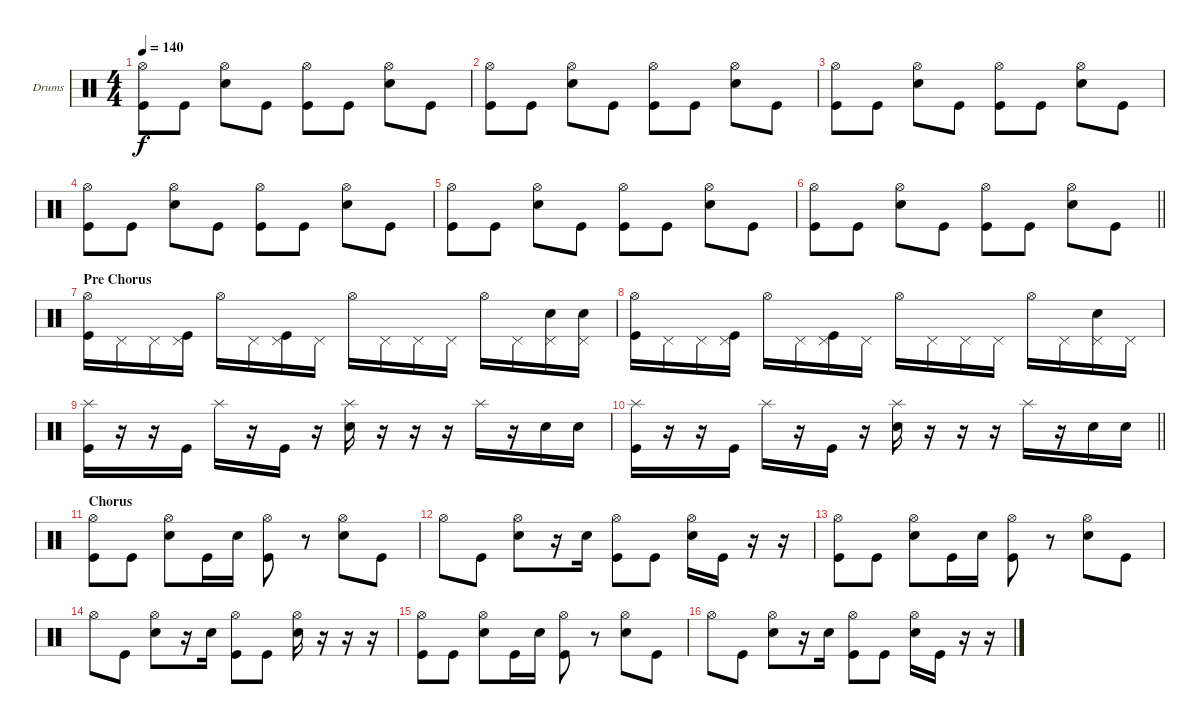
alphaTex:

\bracketExtendMode groupsimilarinstruments
\firstSystemTrackNameOrientation horizontal
\otherSystemsTrackNameOrientation horizontal
\track ("Dave McClain" "Drums") {instrument percussion}
\staff {score}
\articulation defaults
\ts (4 4)
\tempo 140
\clef neutral
\ks c
("Hi-Hat (open)" "Kick (hit)").8{dy f} "Kick (hit)".8 ("Hi-Hat (open)" "Snare (hit) 2").8 "Kick (hit)".8 ("Hi-Hat (open)" "Kick (hit)").8 "Kick (hit)".8 ("Hi-Hat (open)" "Snare (hit) 2").8 "Kick (hit)".8 |
("Hi-Hat (open)" "Kick (hit)").8 "Kick (hit)".8 ("Hi-Hat (open)" "Snare (hit) 2").8 "Kick (hit)".8 ("Hi-Hat (open)" "Kick (hit)").8 "Kick (hit)".8 ("Hi-Hat (open)" "Snare (hit) 2").8 "Kick (hit)".8 |
("Hi-Hat (open)" "Kick (hit)").8 "Kick (hit)".8 ("Hi-Hat (open)" "Snare (hit) 2").8 "Kick (hit)".8 ("Hi-Hat (open)" "Kick (hit)").8 "Kick (hit)".8 ("Hi-Hat (open)" "Snare (hit) 2").8 "Kick (hit)".8 |
("Hi-Hat (open)" "Kick (hit)").8 "Kick (hit)".8 ("Hi-Hat (open)" "Snare (hit) 2").8 "Kick (hit)".8 ("Hi-Hat (open)" "Kick (hit)").8 "Kick (hit)".8 ("Hi-Hat (open)" "Snare (hit) 2").8 "Kick (hit)".8 |
("Hi-Hat (open)" "Kick (hit)").8 "Kick (hit)".8 ("Hi-Hat (open)" "Snare (hit) 2").8 "Kick (hit)".8 ("Hi-Hat (open)" "Kick (hit)").8 "Kick (hit)".8 ("Hi-Hat (open)" "Snare (hit) 2").8 "Kick (hit)".8 |
\barLineRight lightlight
("Hi-Hat (open)" "Kick (hit)").8 "Kick (hit)".8 ("Hi-Hat (open)" "Snare (hit) 2").8 "Kick (hit)".8 ("Hi-Hat (open)" "Kick (hit)").8 "Kick (hit)".8 ("Hi-Hat (open)" "Snare (hit) 2").8 "Kick (hit)".8 |
\section ("" "Pre Chorus")
("Hi-Hat (open)" "Kick (hit)").16 "Pedal Hi-Hat (hit)".16 "Pedal Hi-Hat (hit)".16 ("Pedal Hi-Hat (hit)" "Kick (hit)").16 "Hi-Hat (open)".16 "Pedal Hi-Hat (hit)".16 ("Pedal Hi-Hat (hit)" "Kick (hit)").16 "Pedal Hi-Hat (hit)".16 "Hi-Hat (open)".16 "Pedal Hi-Hat (hit)".16 "Pedal Hi-Hat (hit)".16 "Pedal Hi-Hat (hit)".16 "Hi-Hat (open)".16 "Pedal Hi-Hat (hit)".16 ("Pedal Hi-Hat (hit)" "Snare (hit) 2").16 ("Pedal Hi-Hat (hit)" "Snare (hit) 2").16 |
("Hi-Hat (open)" "Kick (hit)").16 "Pedal Hi-Hat (hit)".16 "Pedal Hi-Hat (hit)".16 ("Pedal Hi-Hat (hit)" "Kick (hit)").16 "Hi-Hat (open)".16 "Pedal Hi-Hat (hit)".16 ("Pedal Hi-Hat (hit)" "Kick (hit)").16 "Pedal Hi-Hat (hit)".16 "Hi-Hat (open)".16 "Pedal Hi-Hat (hit)".16 "Pedal Hi-Hat (hit)".16 "Pedal Hi-Hat (hit)".16 "Hi-Hat (open)".16 "Pedal Hi-Hat (hit)".16 ("Pedal Hi-Hat (hit)" "Snare (hit) 2").16 "Pedal Hi-Hat (hit)".16 |
("Splash (hit)" "Kick (hit)").16 r.16 r.16 "Kick (hit)".16 "Splash (hit)".16 r.16 "Kick (hit)".16 r.16 ("Splash (hit)" "Snare (hit) 2").16 r.16 r.16 r.16 "Splash (hit)".16 r.16 "Snare (hit) 2".16 "Snare (hit) 2".16 |
\barLineRight lightlight
("Splash (hit)" "Kick (hit)").16 r.16 r.16 "Kick (hit)".16 "Splash (hit)".16 r.16 "Kick (hit)".16 r.16 ("Splash (hit)" "Snare (hit) 2").16 r.16 r.16 r.16 "Splash (hit)".16 r.16 "Snare (hit) 2".16 "Snare (hit) 2".16 |
\section ("" "Chorus")
("Hi-Hat (open)" "Kick (hit)").8 "Kick (hit)".8 ("Hi-Hat (open)" "Snare (hit) 2").8 "Kick (hit)".16 "Snare (hit) 2".16 ("Hi-Hat (open)" "Kick (hit)").8 r.8 ("Hi-Hat (open)" "Snare (hit) 2").8 "Kick (hit)".8 |
"Hi-Hat (open)".8 "Kick (hit)".8 ("Hi-Hat (open)" "Snare (hit) 2").8 r.16 "Snare (hit) 2".16 ("Hi-Hat (open)" "Kick (hit)").8 "Kick (hit)".8 ("Hi-Hat (open)" "Snare (hit) 2").16 "Kick (hit)".16 r.16 r.16 |
("Hi-Hat (open)" "Kick (hit)").8 "Kick (hit)".8 ("Hi-Hat (open)" "Snare (hit) 2").8 "Kick (hit)".16 "Snare (hit) 2".16 ("Hi-Hat (open)" "Kick (hit)").8 r.8 ("Hi-Hat (open)" "Snare (hit) 2").8 "Kick (hit)".8 |
"Hi-Hat (open)".8 "Kick (hit)".8 ("Hi-Hat (open)" "Snare (hit) 2").8 r.16 "Snare (hit) 2".16 ("Hi-Hat (open)" "Kick (hit)").8 "Kick (hit)".8 ("Hi-Hat (open)" "Snare (hit) 2").16 r.16 r.16 r.16 |
("Hi-Hat (open)" "Kick (hit)").8 "Kick (hit)".8 ("Hi-Hat (open)" "Snare (hit) 2").8 "Kick (hit)".16 "Snare (hit) 2".16 ("Hi-Hat (open)" "Kick (hit)").8 r.8 ("Hi-Hat (open)" "Snare (hit) 2").8 "Kick (hit)".8 |
"Hi-Hat (open)".8 "Kick (hit)".8 ("Hi-Hat (open)" "Snare (hit) 2").8 r.16 "Snare (hit) 2".16 ("Hi-Hat (open)" "Kick (hit)").8 "Kick (hit)".8 ("Hi-Hat (open)" "Snare (hit) 2").16 "Kick (hit)".16 r.16 r.16
